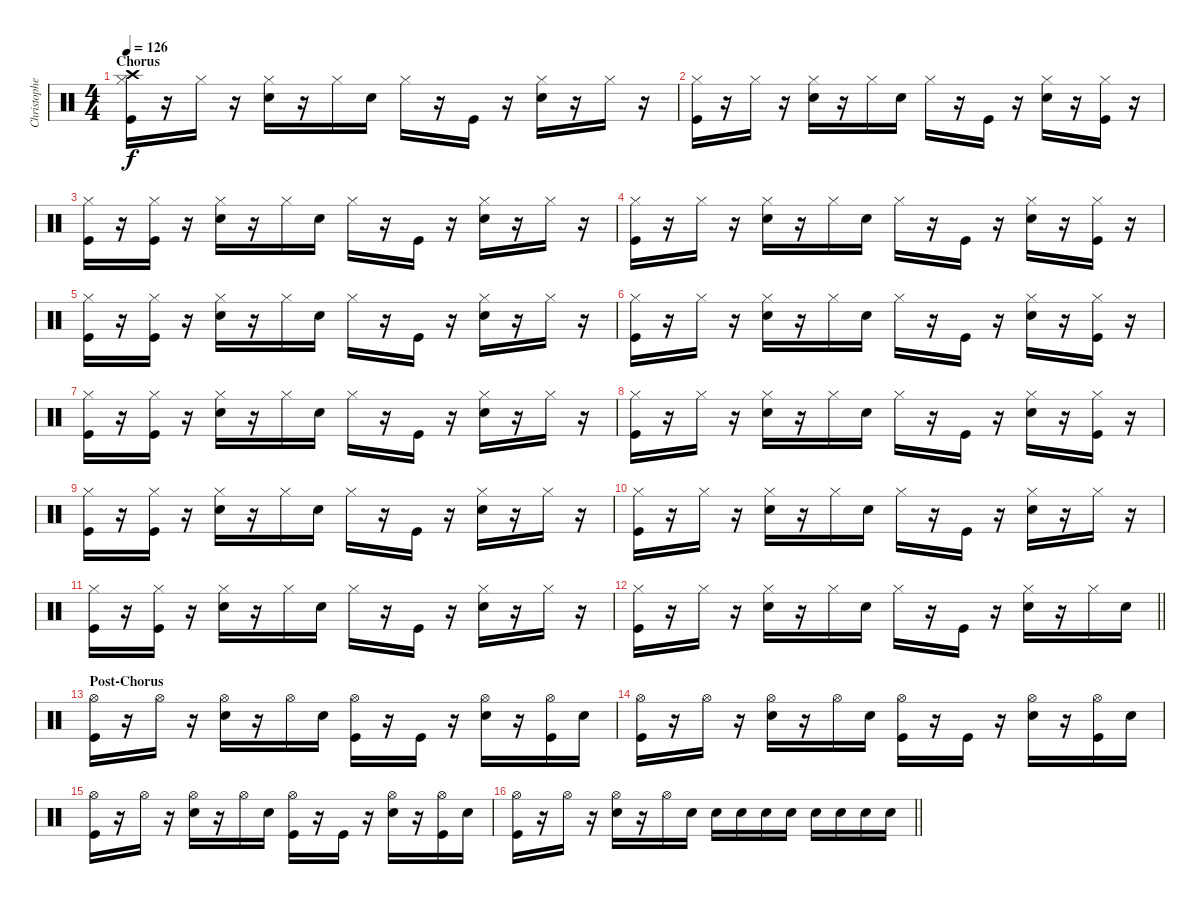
\track ("Christopher - Drums" "Christophe") {mute instrument percussion}
\staff {score}
\articulation defaults
\ts (4 4)
\section ("" "Chorus")
\tempo 126
\clef neutral
\ks c
("Crash high (hit)" "Hi-Hat (closed)" "Kick (hit)").16{dy f} r.16 "Hi-Hat (closed)".16 r.16 ("Hi-Hat (closed)" "Snare (hit) 2").16 r.16 "Hi-Hat (closed)".16 "Snare (hit) 2".16 "Hi-Hat (closed)".16 r.16 "Kick (hit)".16 r.16 ("Hi-Hat (closed)" "Snare (hit) 2").16 r.16 "Hi-Hat (closed)".16 r.16 |
("Hi-Hat (closed)" "Kick (hit)").16 r.16 "Hi-Hat (closed)".16 r.16 ("Hi-Hat (closed)" "Snare (hit) 2").16 r.16 "Hi-Hat (closed)".16 "Snare (hit) 2".16 "Hi-Hat (closed)".16 r.16 "Kick (hit)".16 r.16 ("Hi-Hat (closed)" "Snare (hit) 2").16 r.16 ("Hi-Hat (closed)" "Kick (hit)").16 r.16 |
("Hi-Hat (closed)" "Kick (hit)").16 r.16 ("Hi-Hat (closed)" "Kick (hit)").16 r.16 ("Hi-Hat (closed)" "Snare (hit) 2").16 r.16 "Hi-Hat (closed)".16 "Snare (hit) 2".16 "Hi-Hat (closed)".16 r.16 "Kick (hit)".16 r.16 ("Hi-Hat (closed)" "Snare (hit) 2").16 r.16 "Hi-Hat (closed)".16 r.16 |
("Hi-Hat (closed)" "Kick (hit)").16 r.16 "Hi-Hat (closed)".16 r.16 ("Hi-Hat (closed)" "Snare (hit) 2").16 r.16 "Hi-Hat (closed)".16 "Snare (hit) 2".16 "Hi-Hat (closed)".16 r.16 "Kick (hit)".16 r.16 ("Hi-Hat (closed)" "Snare (hit) 2").16 r.16 ("Hi-Hat (closed)" "Kick (hit)").16 r.16 |
("Hi-Hat (closed)" "Kick (hit)").16 r.16 ("Hi-Hat (closed)" "Kick (hit)").16 r.16 ("Hi-Hat (closed)" "Snare (hit) 2").16 r.16 "Hi-Hat (closed)".16 "Snare (hit) 2".16 "Hi-Hat (closed)".16 r.16 "Kick (hit)".16 r.16 ("Hi-Hat (closed)" "Snare (hit) 2").16 r.16 "Hi-Hat (closed)".16 r.16 |
("Hi-Hat (closed)" "Kick (hit)").16 r.16 "Hi-Hat (closed)".16 r.16 ("Hi-Hat (closed)" "Snare (hit) 2").16 r.16 "Hi-Hat (closed)".16 "Snare (hit) 2".16 "Hi-Hat (closed)".16 r.16 "Kick (hit)".16 r.16 ("Hi-Hat (closed)" "Snare (hit) 2").16 r.16 ("Hi-Hat (closed)" "Kick (hit)").16 r.16 |
("Hi-Hat (closed)" "Kick (hit)").16 r.16 ("Hi-Hat (closed)" "Kick (hit)").16 r.16 ("Hi-Hat (closed)" "Snare (hit) 2").16 r.16 "Hi-Hat (closed)".16 "Snare (hit) 2".16 "Hi-Hat (closed)".16 r.16 "Kick (hit)".16 r.16 ("Hi-Hat (closed)" "Snare (hit) 2").16 r.16 "Hi-Hat (closed)".16 r.16 |
("Hi-Hat (closed)" "Kick (hit)").16 r.16 "Hi-Hat (closed)".16 r.16 ("Hi-Hat (closed)" "Snare (hit) 2").16 r.16 "Hi-Hat (closed)".16 "Snare (hit) 2".16 "Hi-Hat (closed)".16 r.16 "Kick (hit)".16 r.16 ("Hi-Hat (closed)" "Snare (hit) 2").16 r.16 ("Hi-Hat (closed)" "Kick (hit)").16 r.16 |
("Hi-Hat (closed)" "Kick (hit)").16 r.16 ("Hi-Hat (closed)" "Kick (hit)").16 r.16 ("Hi-Hat (closed)" "Snare (hit) 2").16 r.16 "Hi-Hat (closed)".16 "Snare (hit) 2".16 "Hi-Hat (closed)".16 r.16 "Kick (hit)".16 r.16 ("Hi-Hat (closed)" "Snare (hit) 2").16 r.16 "Hi-Hat (closed)".16 r.16 |
("Hi-Hat (closed)" "Kick (hit)").16 r.16 "Hi-Hat (closed)".16 r.16 ("Hi-Hat (closed)" "Snare (hit) 2").16 r.16 "Hi-Hat (closed)".16 "Snare (hit) 2".16 "Hi-Hat (closed)".16 r.16 "Kick (hit)".16 r.16 ("Hi-Hat (closed)" "Snare (hit) 2").16 r.16 "Hi-Hat (closed)".16 r.16 |
("Hi-Hat (closed)" "Kick (hit)").16 r.16 ("Hi-Hat (closed)" "Kick (hit)").16 r.16 ("Hi-Hat (closed)" "Snare (hit) 2").16 r.16 "Hi-Hat (closed)".16 "Snare (hit) 2".16 "Hi-Hat (closed)".16 r.16 "Kick (hit)".16 r.16 ("Hi-Hat (closed)" "Snare (hit) 2").16 r.16 "Hi-Hat (closed)".16 r.16 |
\barLineRight lightlight
("Hi-Hat (closed)" "Kick (hit)").16 r.16 "Hi-Hat (closed)".16 r.16 ("Hi-Hat (closed)" "Snare (hit) 2").16 r.16 "Hi-Hat (closed)".16 "Snare (hit) 2".16 "Hi-Hat (closed)".16 r.16 "Kick (hit)".16 r.16 ("Hi-Hat (closed)" "Snare (hit) 2").16 r.16 "Hi-Hat (closed)".16 "Snare (hit) 2".16 |
\section ("" "Post-Chorus")
("Hi-Hat (open)" "Kick (hit)").16 r.16 "Hi-Hat (open)".16 r.16 ("Hi-Hat (open)" "Snare (hit) 2").16 r.16 "Hi-Hat (open)".16 "Snare (hit) 2".16 ("Hi-Hat (open)" "Kick (hit)").16 r.16 "Kick (hit)".16 r.16 ("Hi-Hat (open)" "Snare (hit) 2").16 r.16 ("Hi-Hat (open)" "Kick (hit)").16 "Snare (hit) 2".16 |
("Hi-Hat (open)" "Kick (hit)").16 r.16 "Hi-Hat (open)".16 r.16 ("Hi-Hat (open)" "Snare (hit) 2").16 r.16 "Hi-Hat (open)".16 "Snare (hit) 2".16 ("Hi-Hat (open)" "Kick (hit)").16 r.16 "Kick (hit)".16 r.16 ("Hi-Hat (open)" "Snare (hit) 2").16 r.16 ("Hi-Hat (open)" "Kick (hit)").16 "Snare (hit) 2".16 |
("Hi-Hat (open)" "Kick (hit)").16 r.16 "Hi-Hat (open)".16 r.16 ("Hi-Hat (open)" "Snare (hit) 2").16 r.16 "Hi-Hat (open)".16 "Snare (hit) 2".16 ("Hi-Hat (open)" "Kick (hit)").16 r.16 "Kick (hit)".16 r.16 ("Hi-Hat (open)" "Snare (hit) 2").16 r.16 ("Hi-Hat (open)" "Kick (hit)").16 "Snare (hit) 2".16 |
\barLineRight lightlight
("Hi-Hat (open)" "Kick (hit)").16 r.16 "Hi-Hat (open)".16 r.16 ("Hi-Hat (open)" "Snare (hit) 2").16 r.16 "Hi-Hat (open)".16 "Snare (hit) 2".16 "Snare (hit) 2".16 "Snare (hit) 2".16 "Snare (hit) 2".16 "Snare (hit) 2".16 "Snare (hit) 2".16 "Snare (hit) 2".16 "Snare (hit) 2".16 "Snare (hit) 2".16
